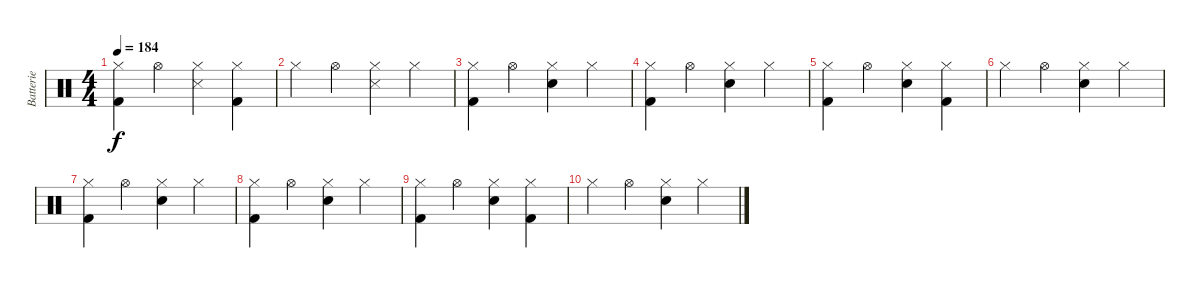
\track ("Batterie" "Batterie") {instrument percussion}
\staff {score}
\articulation defaults
\ts (4 4)
\tempo 184
\clef neutral
\ks c
("Hi-Hat (closed)" "Kick (hit) 2").4{dy f} "Hi-Hat (open)".4 ("Hi-Hat (closed)" "Metronome (hit)").4 ("Hi-Hat (closed)" "Kick (hit) 2").4 |
"Hi-Hat (closed)".4 "Hi-Hat (open)".4 ("Hi-Hat (closed)" "Metronome (hit)").4 "Hi-Hat (closed)".4 |
("Hi-Hat (closed)" "Kick (hit) 2").4 "Hi-Hat (open)".4 ("Hi-Hat (closed)" "Snare (hit) 2").4 "Hi-Hat (closed)".4 |
("Hi-Hat (closed)" "Kick (hit) 2").4 "Hi-Hat (open)".4 ("Hi-Hat (closed)" "Snare (hit) 2").4 "Hi-Hat (closed)".4 |
("Hi-Hat (closed)" "Kick (hit) 2").4 "Hi-Hat (open)".4 ("Hi-Hat (closed)" "Snare (hit) 2").4 ("Hi-Hat (closed)" "Kick (hit) 2").4 |
"Hi-Hat (closed)".4 "Hi-Hat (open)".4 ("Hi-Hat (closed)" "Snare (hit) 2").4 "Hi-Hat (closed)".4 |
("Hi-Hat (closed)" "Kick (hit) 2").4 "Hi-Hat (open)".4 ("Hi-Hat (closed)" "Snare (hit) 2").4 "Hi-Hat (closed)".4 |
("Hi-Hat (closed)" "Kick (hit) 2").4 "Hi-Hat (open)".4 ("Hi-Hat (closed)" "Snare (hit) 2").4 "Hi-Hat (closed)".4 |
("Hi-Hat (closed)" "Kick (hit) 2").4 "Hi-Hat (open)".4 ("Hi-Hat (closed)" "Snare (hit) 2").4 ("Hi-Hat (closed)" "Kick (hit) 2").4 |
"Hi-Hat (closed)".4 "Hi-Hat (open)".4 ("Hi-Hat (closed)" "Snare (hit) 2").4 "Hi-Hat (closed)".4
